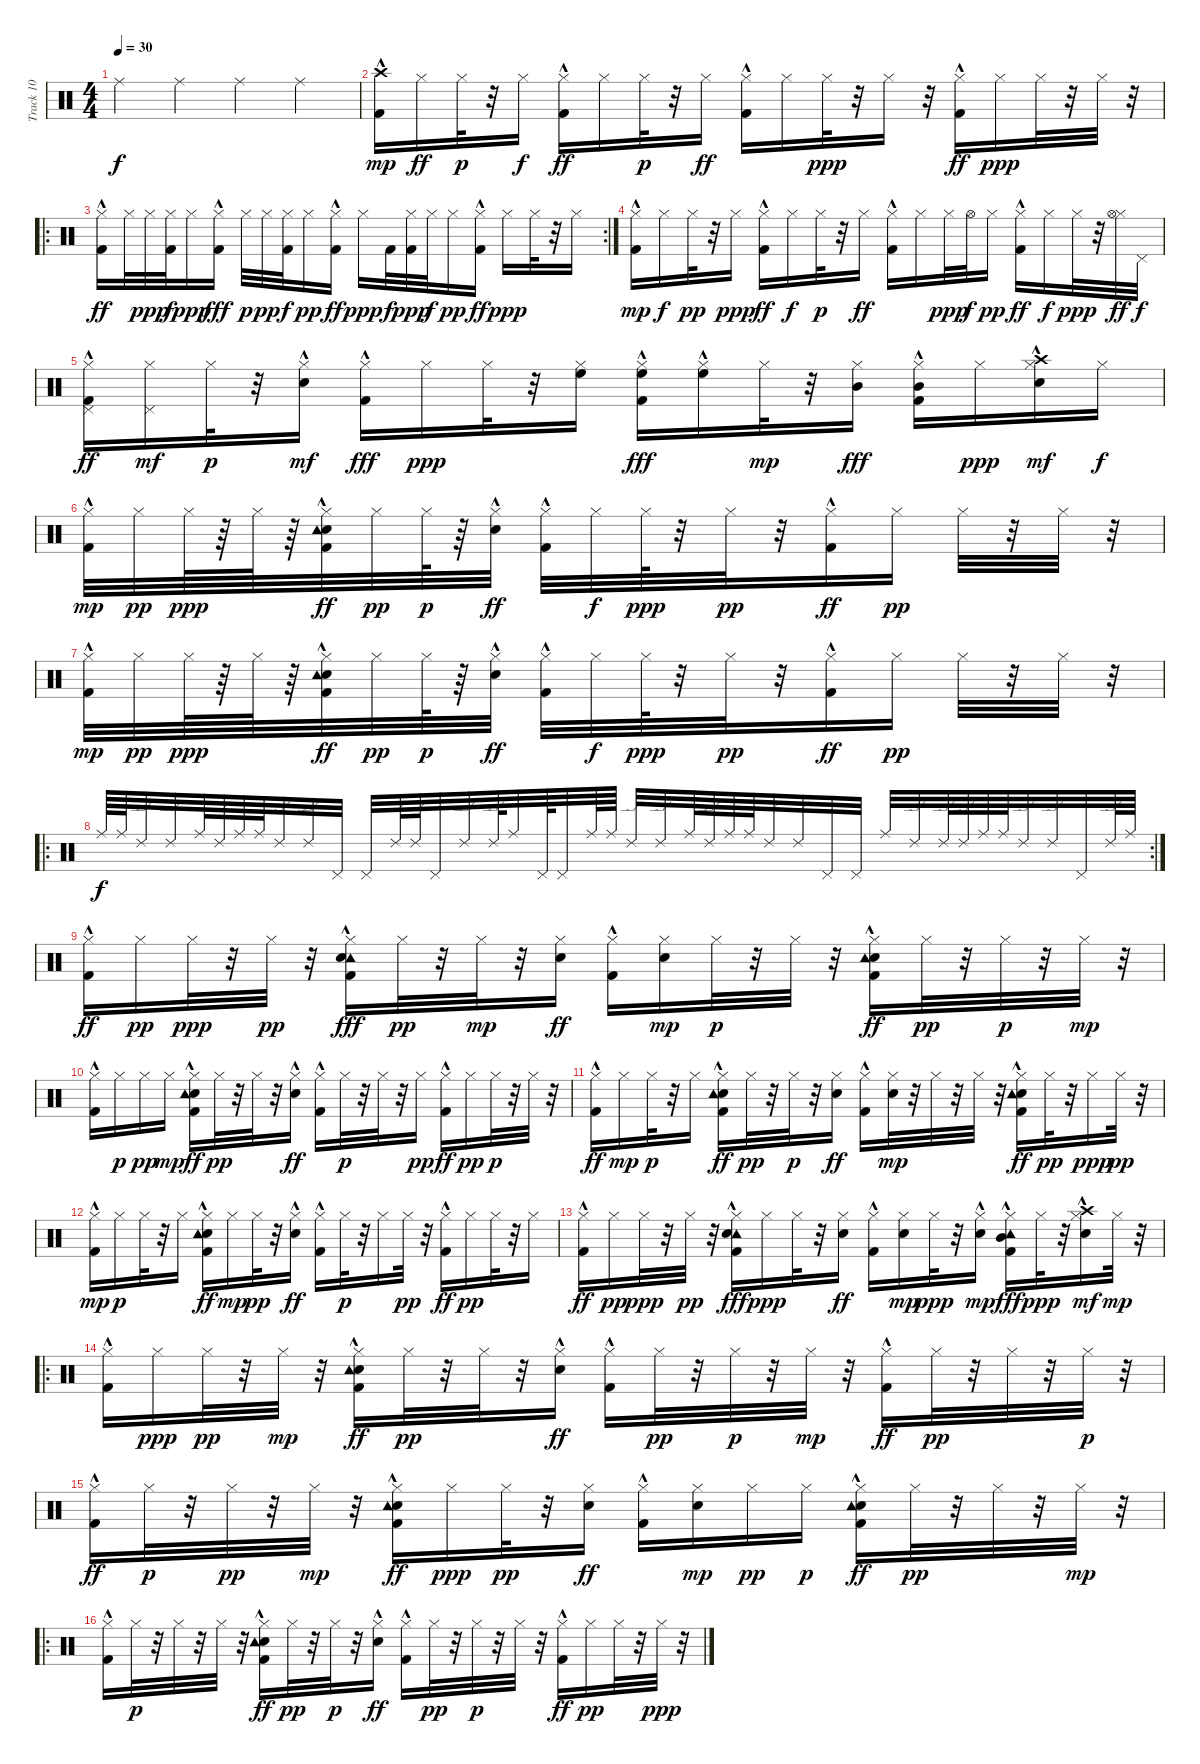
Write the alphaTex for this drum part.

\track ("Track 10" "Track 10") {instrument percussion}
\staff {score}
\articulation defaults
\ts (4 4)
\tempo 30
\clef neutral
\ks c "Ride (middle)".4{dy f} "Ride (middle)".4 "Ride (middle)".4 "Ride (middle)".4
|
("Crash high (hit)" "Kick (hit) 2"{hac}).16{dy mp} "Hi-Hat (closed)".16{dy ff} "Hi-Hat (closed)".32{dy p} r.32 "Hi-Hat (closed)".16{dy f} ("Hi-Hat (closed)" "Kick (hit) 2"{hac}).16{dy ff} "Hi-Hat (closed)".16 "Hi-Hat (closed)".32{dy p} r.32 "Hi-Hat (closed)".16{dy ff} ("Hi-Hat (closed)" "Kick (hit) 2"{hac}).16 "Hi-Hat (closed)".16 "Hi-Hat (closed)".32{dy ppp} r.32 "Hi-Hat (closed)".16 r.32 ("Kick (hit) 2"{hac} "Hi-Hat (closed)").16{dy ff} "Hi-Hat (closed)".16{dy ppp} "Hi-Hat (closed)".32 r.32 "Hi-Hat (closed)".32 r.32 |
\ro
\rc 2
("Hi-Hat (closed)" "Kick (hit) 2"{hac}).16{dy ff} "Hi-Hat (closed)".32 "Hi-Hat (closed)".32{dy ppp} ("Hi-Hat (closed)" "Kick (hit) 2").32{dy f} "Hi-Hat (closed)".16{dy ppp} ("Hi-Hat (closed)" "Kick (hit) 2"{hac}).16{dy fff} "Hi-Hat (closed)".32{dy p} "Hi-Hat (closed)".32{dy pp} ("Hi-Hat (closed)" "Kick (hit) 2").32{dy f} "Hi-Hat (closed)".16{dy pp} ("Hi-Hat (closed)" "Kick (hit) 2"{hac}).16{dy ff} "Hi-Hat (closed)".16{dy ppp} "Kick (hit) 2".32{dy f} ("Hi-Hat (closed)" "Kick (hit) 2").32{dy ppp} "Hi-Hat (closed)".32{dy f} "Hi-Hat (closed)".16{dy pp} ("Hi-Hat (closed)" "Kick (hit) 2"{hac}).16{dy ff} "Hi-Hat (closed)".16{dy ppp} "Hi-Hat (closed)".32 r.32 "Hi-Hat (closed)".16 |
("Hi-Hat (closed)" "Kick (hit) 2"{hac}).16{dy mp} "Hi-Hat (closed)".16{dy f} "Hi-Hat (closed)".32{dy pp} r.32 "Hi-Hat (closed)".16{dy ppp} ("Hi-Hat (closed)" "Kick (hit) 2"{hac}).16{dy ff} "Hi-Hat (closed)".16{dy f} "Hi-Hat (closed)".32{dy p} r.32 "Hi-Hat (closed)".16{dy ff} ("Hi-Hat (closed)" "Kick (hit) 2"{hac}).16 "Hi-Hat (closed)".16 "Hi-Hat (closed)".32{dy ppp} "Hi-Hat (open)".32{dy f} "Hi-Hat (closed)".16{dy pp} ("Kick (hit) 2"{hac} "Hi-Hat (closed)").16{dy ff} "Hi-Hat (closed)".16{dy f} "Hi-Hat (closed)".32{dy ppp} r.32 ("Hi-Hat (closed)" "Hi-Hat (open)").32{dy ff} "Pedal Hi-Hat (hit)".32{dy f} |
("Pedal Hi-Hat (hit)" "Hi-Hat (closed)" "Kick (hit) 2"{hac}).16{dy ff} ("Hi-Hat (closed)" "Pedal Hi-Hat (hit)").16{dy mf} "Hi-Hat (closed)".32{dy p} r.32 ("Hi-Hat (closed)" "Snare (hit) 2"{hac}).16{dy mf} ("Hi-Hat (closed)" "Kick (hit) 2"{hac}).16{dy fff} "Hi-Hat (closed)".16{dy ppp} "Hi-Hat (closed)".32 r.32 ("Hi-Hat (closed)" "High Floor Tom (hit)").16 ("Hi-Hat (closed)" "Kick (hit) 2"{hac} "High Floor Tom (hit)").16{dy fff} ("Hi-Hat (closed)" "High Floor Tom (hit)"{hac}).16 "Hi-Hat (closed)".32{dy mp} r.32 ("Hi-Hat (closed)" "Mid Tom (hit)").16{dy fff} ("Hi-Hat (closed)" "Kick (hit) 2"{hac} "Mid Tom (hit)"{hac}).16 "Hi-Hat (closed)".16{dy ppp} ("Crash high (hit)" "Hi-Hat (closed)" "Snare (hit) 2"{hac}).16{dy mf} "Hi-Hat (closed)".16{dy f} |
("Hi-Hat (closed)" "Kick (hit) 2"{hac}).32{dy mp} "Hi-Hat (closed)".32{dy pp} "Hi-Hat (closed)".64{dy ppp} r.64 "Hi-Hat (closed)".64 r.64 ("Hi-Hat (closed)" "Kick (hit) 2"{hac} "Snare (hit) 2"{hac} "Tambourine (hit)"{hac}).32{dy ff} "Hi-Hat (closed)".32{dy pp} "Hi-Hat (closed)".64{dy p} r.64 ("Hi-Hat (closed)" "Snare (hit) 2"{hac}).32{dy ff} ("Hi-Hat (closed)" "Kick (hit) 2"{hac}).32 "Hi-Hat (closed)".32{dy f} "Hi-Hat (closed)".64{dy ppp} r.32 "Hi-Hat (closed)".32{dy pp} r.32 ("Kick (hit) 2"{hac} "Hi-Hat (closed)").16{dy ff} "Hi-Hat (closed)".16{dy pp} "Hi-Hat (closed)".32 r.32 "Hi-Hat (closed)".32 r.32 |
("Hi-Hat (closed)" "Kick (hit) 2"{hac}).32{dy mp} "Hi-Hat (closed)".32{dy pp} "Hi-Hat (closed)".64{dy ppp} r.64 "Hi-Hat (closed)".64 r.64 ("Hi-Hat (closed)" "Kick (hit) 2"{hac} "Snare (hit) 2"{hac} "Tambourine (hit)"{hac}).32{dy ff} "Hi-Hat (closed)".32{dy pp} "Hi-Hat (closed)".64{dy p} r.64 ("Hi-Hat (closed)" "Snare (hit) 2"{hac}).32{dy ff} ("Hi-Hat (closed)" "Kick (hit) 2"{hac}).32 "Hi-Hat (closed)".32{dy f} "Hi-Hat (closed)".64{dy ppp} r.32 "Hi-Hat (closed)".32{dy pp} r.32 ("Kick (hit) 2"{hac} "Hi-Hat (closed)").16{dy ff} "Hi-Hat (closed)".16{dy pp} "Hi-Hat (closed)".32 r.32 "Hi-Hat (closed)".32 r.32 |
\ro
\rc 2 "Ride (middle)".64{dy f} "Ride (middle)".64 "Ride (edge) 2".32 "Ride (edge) 2".32 "Ride (middle)".64 "Ride (edge) 2".64 "Ride (middle)".64 "Ride (middle)".64 "Ride (edge) 2".32 "Ride (edge) 2".32 "Pedal Hi-Hat (hit)".32 "Pedal Hi-Hat (hit)".32 "Ride (edge) 2".64 "Ride (edge) 2".64 "Pedal Hi-Hat (hit)".32 "Ride (edge) 2".32 "Ride (edge) 2".64 "Ride (middle)".32 "Pedal Hi-Hat (hit)".64 "Pedal Hi-Hat (hit)".32 "Ride (middle)".64 "Ride (middle)".64 "Ride (edge) 2".32 "Ride (edge) 2".32 "Ride (middle)".64 "Ride (edge) 2".64 "Ride (middle)".64 "Ride (middle)".64 "Ride (edge) 2".32 "Ride (edge) 2".32 "Pedal Hi-Hat (hit)".32 "Pedal Hi-Hat (hit)".32 "Ride (middle)".32 "Ride (edge) 2".32 "Ride (edge) 2".64 "Ride (edge) 2".64 "Ride (middle)".64 "Ride (middle)".64 "Ride (edge) 2".32 "Ride (edge) 2".32 "Pedal Hi-Hat (hit)".32 "Ride (edge) 2".64 "Ride (middle)".64
|
("Hi-Hat (closed)" "Kick (hit) 2"{hac}).16{dy ff} "Hi-Hat (closed)".16{dy pp} "Hi-Hat (closed)".32{dy ppp} r.32 "Hi-Hat (closed)".32{dy pp} r.32 ("Hi-Hat (closed)" "Kick (hit) 2"{hac} "Tambourine (hit)"{hac} "Snare (hit) 2"{hac}).16{dy fff} "Hi-Hat (closed)".32{dy pp} r.32 "Hi-Hat (closed)".32{dy mp} r.32 ("Hi-Hat (closed)" "Snare (hit) 2").16{dy ff} ("Hi-Hat (closed)" "Kick (hit) 2"{hac}).16 ("Hi-Hat (closed)" "Snare (hit) 2").16{dy mp} "Hi-Hat (closed)".32{dy p} r.32 "Hi-Hat (closed)".32 r.32 ("Hi-Hat (closed)" "Kick (hit) 2"{hac} "Snare (hit) 2"{hac} "Tambourine (hit)").16{dy ff} "Hi-Hat (closed)".32{dy pp} r.32 "Hi-Hat (closed)".32{dy p} r.32 "Hi-Hat (closed)".32{dy mp} r.32 |
("Hi-Hat (closed)" "Kick (hit) 2"{hac}).16 "Hi-Hat (closed)".16{dy p} "Hi-Hat (closed)".16{dy pp} "Hi-Hat (closed)".16{dy mp} ("Hi-Hat (closed)" "Kick (hit) 2"{hac} "Snare (hit) 2"{hac} "Tambourine (hit)"{hac}).16{dy ff} "Hi-Hat (closed)".32{dy pp} r.32 "Hi-Hat (closed)".32 r.32 ("Hi-Hat (closed)" "Snare (hit) 2"{hac}).16{dy ff} ("Hi-Hat (closed)" "Kick (hit) 2"{hac}).16 "Hi-Hat (closed)".32{dy p} r.32 "Hi-Hat (closed)".32 r.32 "Hi-Hat (closed)".16{dy pp} ("Kick (hit) 2"{hac} "Hi-Hat (closed)").16{dy ff} "Hi-Hat (closed)".16{dy pp} "Hi-Hat (closed)".32{dy p} r.32 "Hi-Hat (closed)".32 r.32 |
("Hi-Hat (closed)" "Kick (hit) 2"{hac}).16{dy ff} "Hi-Hat (closed)".16{dy mp} "Hi-Hat (closed)".32{dy p} r.32 "Hi-Hat (closed)".16 ("Hi-Hat (closed)" "Kick (hit) 2"{hac} "Snare (hit) 2"{hac} "Tambourine (hit)").16{dy ff} "Hi-Hat (closed)".32{dy pp} r.32 "Hi-Hat (closed)".32{dy p} r.32 ("Hi-Hat (closed)" "Snare (hit) 2").16{dy ff} ("Hi-Hat (closed)" "Kick (hit) 2"{hac}).16 ("Hi-Hat (closed)" "Snare (hit) 2").32{dy mp} r.32 "Hi-Hat (closed)".32 r.32 "Hi-Hat (closed)".32 r.32 ("Hi-Hat (closed)" "Kick (hit) 2"{hac} "Snare (hit) 2"{hac} "Tambourine (hit)"{hac}).16{dy ff} "Hi-Hat (closed)".32{dy pp} r.32 "Hi-Hat (closed)".16{dy ppp} "Hi-Hat (closed)".32{dy pp} r.32 |
("Hi-Hat (closed)" "Kick (hit) 2"{hac}).16{dy mp} "Hi-Hat (closed)".16{dy p} "Hi-Hat (closed)".32 r.32 "Hi-Hat (closed)".16 ("Hi-Hat (closed)" "Kick (hit) 2"{hac} "Snare (hit) 2"{hac} "Tambourine (hit)"{hac}).16{dy ff} "Hi-Hat (closed)".16{dy mp} "Hi-Hat (closed)".32{dy pp} r.32 ("Hi-Hat (closed)" "Snare (hit) 2"{hac}).16{dy ff} ("Hi-Hat (closed)" "Kick (hit) 2"{hac}).16 "Hi-Hat (closed)".32{dy p} r.32 "Hi-Hat (closed)".16 "Hi-Hat (closed)".32{dy pp} r.32 ("Kick (hit) 2"{hac} "Hi-Hat (closed)").16{dy ff} "Hi-Hat (closed)".16{dy pp} "Hi-Hat (closed)".32 r.32 "Hi-Hat (closed)".16 |
("Hi-Hat (closed)" "Kick (hit) 2"{hac}).16{dy ff} "Hi-Hat (closed)".16{dy pp} "Hi-Hat (closed)".32{dy ppp} r.32 "Hi-Hat (closed)".32{dy pp} r.32 ("Hi-Hat (closed)" "Kick (hit) 2"{hac} "Tambourine (hit)"{hac} "Snare (hit) 2"{hac}).16{dy fff} "Hi-Hat (closed)".16{dy ppp} "Hi-Hat (closed)".32 r.32 ("Hi-Hat (closed)" "Snare (hit) 2").16{dy ff} ("Hi-Hat (closed)" "Kick (hit) 2"{hac}).16 ("Hi-Hat (closed)" "Snare (hit) 2").16{dy mp} "Hi-Hat (closed)".32{dy ppp} r.32 ("Hi-Hat (closed)" "Snare (hit) 2"{hac}).16{dy mp} ("Hi-Hat (closed)" "Kick (hit) 2"{hac} "Tambourine (hit)" "Mid Tom (hit)"{hac}).16{dy fff} "Hi-Hat (closed)".32{dy ppp} r.32 ("Crash high (hit)" "Hi-Hat (closed)" "Snare (hit) 2"{hac}).16{dy mf} "Hi-Hat (closed)".32{dy mp} r.32 |
\ro
("Hi-Hat (closed)" "Kick (hit) 2"{hac}).16 "Hi-Hat (closed)".16{dy ppp} "Hi-Hat (closed)".32{dy pp} r.32 "Hi-Hat (closed)".32{dy mp} r.32 ("Hi-Hat (closed)" "Kick (hit) 2"{hac} "Snare (hit) 2"{hac} "Tambourine (hit)"{hac}).16{dy ff} "Hi-Hat (closed)".32{dy pp} r.32 "Hi-Hat (closed)".32 r.32 ("Hi-Hat (closed)" "Snare (hit) 2"{hac}).16{dy ff} ("Hi-Hat (closed)" "Kick (hit) 2"{hac}).16 "Hi-Hat (closed)".32{dy pp} r.32 "Hi-Hat (closed)".32{dy p} r.32 "Hi-Hat (closed)".32{dy mp} r.32 ("Kick (hit) 2"{hac} "Hi-Hat (closed)").16{dy ff} "Hi-Hat (closed)".32{dy pp} r.32 "Hi-Hat (closed)".32 r.32 "Hi-Hat (closed)".32{dy p} r.32 |
("Hi-Hat (closed)" "Kick (hit) 2"{hac}).16{dy ff} "Hi-Hat (closed)".32{dy p} r.32 "Hi-Hat (closed)".32{dy pp} r.32 "Hi-Hat (closed)".32{dy mp} r.32 ("Hi-Hat (closed)" "Kick (hit) 2"{hac} "Snare (hit) 2"{hac} "Tambourine (hit)").16{dy ff} "Hi-Hat (closed)".16{dy ppp} "Hi-Hat (closed)".32{dy pp} r.32 ("Hi-Hat (closed)" "Snare (hit) 2").16{dy ff} ("Hi-Hat (closed)" "Kick (hit) 2"{hac}).16 ("Hi-Hat (closed)" "Snare (hit) 2").16{dy mp} "Hi-Hat (closed)".16{dy pp} "Hi-Hat (closed)".16{dy p} ("Hi-Hat (closed)" "Kick (hit) 2"{hac} "Snare (hit) 2"{hac} "Tambourine (hit)"{hac}).16{dy ff} "Hi-Hat (closed)".32{dy pp} r.32 "Hi-Hat (closed)".32 r.32 "Hi-Hat (closed)".32{dy mp} r.32 |
\ro
("Hi-Hat (closed)" "Kick (hit) 2"{hac}).16 "Hi-Hat (closed)".32{dy p} r.32 "Hi-Hat (closed)".32 r.32 "Hi-Hat (closed)".32 r.32 ("Hi-Hat (closed)" "Kick (hit) 2"{hac} "Snare (hit) 2"{hac} "Tambourine (hit)"{hac}).16{dy ff} "Hi-Hat (closed)".32{dy pp} r.32 "Hi-Hat (closed)".32{dy p} r.32 ("Hi-Hat (closed)" "Snare (hit) 2"{hac}).16{dy ff} ("Hi-Hat (closed)" "Kick (hit) 2"{hac}).16 "Hi-Hat (closed)".32{dy pp} r.32 "Hi-Hat (closed)".32{dy p} r.32 "Hi-Hat (closed)".32 r.32 ("Kick (hit) 2"{hac} "Hi-Hat (closed)").16{dy ff} "Hi-Hat (closed)".16{dy pp} "Hi-Hat (closed)".32 r.32 "Hi-Hat (closed)".32{dy ppp} r.32
